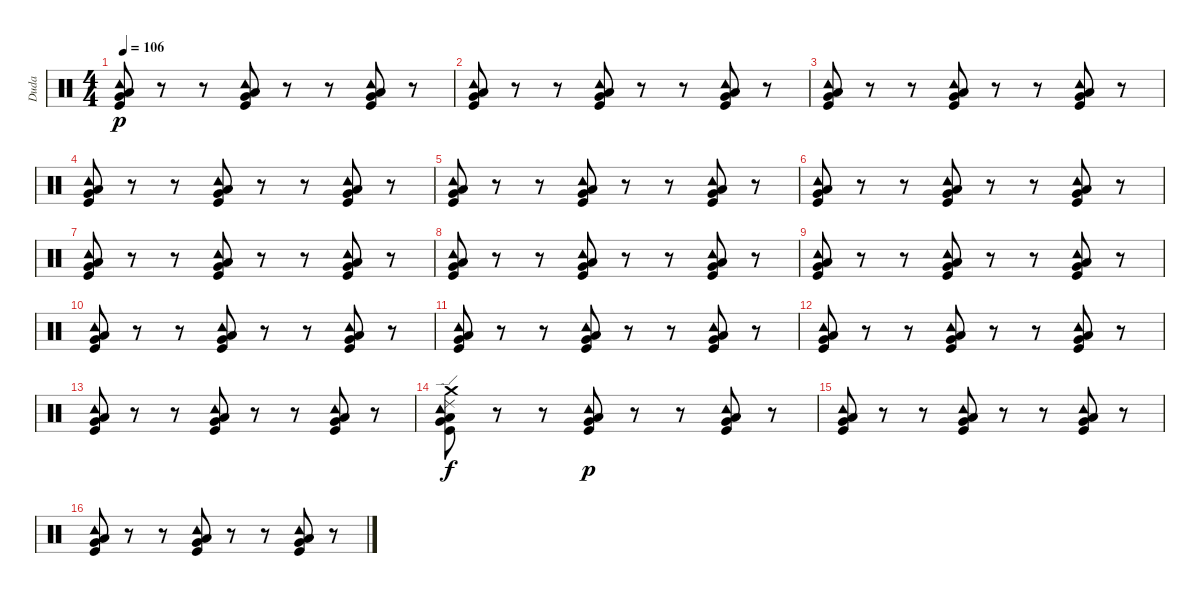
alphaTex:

\track ("Duda" "Duda") {instrument percussion}
\staff {score}
\articulation defaults
\ts (4 4)
\tempo 106
\clef neutral
\ks c
("Tambourine (hit)" "Low Floor Tom (hit)" "Very Low Tom (hit)" "Kick (hit)").8{dy p} r.8 r.8 ("Tambourine (hit)" "Low Floor Tom (hit)" "Very Low Tom (hit)" "Kick (hit)").8 r.8 r.8 ("Tambourine (hit)" "Low Floor Tom (hit)" "Very Low Tom (hit)" "Kick (hit)").8 r.8 |
("Tambourine (hit)" "Low Floor Tom (hit)" "Very Low Tom (hit)" "Kick (hit)").8 r.8 r.8 ("Tambourine (hit)" "Low Floor Tom (hit)" "Very Low Tom (hit)" "Kick (hit)").8 r.8 r.8 ("Tambourine (hit)" "Low Floor Tom (hit)" "Very Low Tom (hit)" "Kick (hit)").8 r.8 |
("Tambourine (hit)" "Low Floor Tom (hit)" "Very Low Tom (hit)" "Kick (hit)").8 r.8 r.8 ("Tambourine (hit)" "Low Floor Tom (hit)" "Very Low Tom (hit)" "Kick (hit)").8 r.8 r.8 ("Tambourine (hit)" "Low Floor Tom (hit)" "Very Low Tom (hit)" "Kick (hit)").8 r.8 |
("Tambourine (hit)" "Low Floor Tom (hit)" "Very Low Tom (hit)" "Kick (hit)").8 r.8 r.8 ("Tambourine (hit)" "Low Floor Tom (hit)" "Very Low Tom (hit)" "Kick (hit)").8 r.8 r.8 ("Tambourine (hit)" "Low Floor Tom (hit)" "Very Low Tom (hit)" "Kick (hit)").8 r.8 |
("Tambourine (hit)" "Low Floor Tom (hit)" "Very Low Tom (hit)" "Kick (hit)").8 r.8 r.8 ("Tambourine (hit)" "Low Floor Tom (hit)" "Very Low Tom (hit)" "Kick (hit)").8 r.8 r.8 ("Tambourine (hit)" "Low Floor Tom (hit)" "Very Low Tom (hit)" "Kick (hit)").8 r.8 |
("Tambourine (hit)" "Low Floor Tom (hit)" "Very Low Tom (hit)" "Kick (hit)").8 r.8 r.8 ("Tambourine (hit)" "Low Floor Tom (hit)" "Very Low Tom (hit)" "Kick (hit)").8 r.8 r.8 ("Tambourine (hit)" "Low Floor Tom (hit)" "Very Low Tom (hit)" "Kick (hit)").8 r.8 |
("Tambourine (hit)" "Low Floor Tom (hit)" "Very Low Tom (hit)" "Kick (hit)").8 r.8 r.8 ("Tambourine (hit)" "Low Floor Tom (hit)" "Very Low Tom (hit)" "Kick (hit)").8 r.8 r.8 ("Tambourine (hit)" "Low Floor Tom (hit)" "Very Low Tom (hit)" "Kick (hit)").8 r.8 |
("Tambourine (hit)" "Low Floor Tom (hit)" "Very Low Tom (hit)" "Kick (hit)").8 r.8 r.8 ("Tambourine (hit)" "Low Floor Tom (hit)" "Very Low Tom (hit)" "Kick (hit)").8 r.8 r.8 ("Tambourine (hit)" "Low Floor Tom (hit)" "Very Low Tom (hit)" "Kick (hit)").8 r.8 |
("Tambourine (hit)" "Low Floor Tom (hit)" "Very Low Tom (hit)" "Kick (hit)").8 r.8 r.8 ("Tambourine (hit)" "Low Floor Tom (hit)" "Very Low Tom (hit)" "Kick (hit)").8 r.8 r.8 ("Tambourine (hit)" "Low Floor Tom (hit)" "Very Low Tom (hit)" "Kick (hit)").8 r.8 |
("Tambourine (hit)" "Low Floor Tom (hit)" "Very Low Tom (hit)" "Kick (hit)").8 r.8 r.8 ("Tambourine (hit)" "Low Floor Tom (hit)" "Very Low Tom (hit)" "Kick (hit)").8 r.8 r.8 ("Tambourine (hit)" "Low Floor Tom (hit)" "Very Low Tom (hit)" "Kick (hit)").8 r.8 |
("Tambourine (hit)" "Low Floor Tom (hit)" "Very Low Tom (hit)" "Kick (hit)").8 r.8 r.8 ("Tambourine (hit)" "Low Floor Tom (hit)" "Very Low Tom (hit)" "Kick (hit)").8 r.8 r.8 ("Tambourine (hit)" "Low Floor Tom (hit)" "Very Low Tom (hit)" "Kick (hit)").8 r.8 |
("Tambourine (hit)" "Low Floor Tom (hit)" "Very Low Tom (hit)" "Kick (hit)").8 r.8 r.8 ("Tambourine (hit)" "Low Floor Tom (hit)" "Very Low Tom (hit)" "Kick (hit)").8 r.8 r.8 ("Tambourine (hit)" "Low Floor Tom (hit)" "Very Low Tom (hit)" "Kick (hit)").8 r.8 |
("Tambourine (hit)" "Low Floor Tom (hit)" "Very Low Tom (hit)" "Kick (hit)").8 r.8 r.8 ("Tambourine (hit)" "Low Floor Tom (hit)" "Very Low Tom (hit)" "Kick (hit)").8 r.8 r.8 ("Tambourine (hit)" "Low Floor Tom (hit)" "Very Low Tom (hit)" "Kick (hit)").8 r.8 |
("Crash medium (hit)" "Low Floor Tom (hit)" "Ride (edge) 2" "Very Low Tom (hit)" "Tambourine (hit)" "Kick (hit)").8{dy f} r.8 r.8 ("Tambourine (hit)" "Low Floor Tom (hit)" "Very Low Tom (hit)" "Kick (hit)").8{dy p} r.8 r.8 ("Tambourine (hit)" "Low Floor Tom (hit)" "Very Low Tom (hit)" "Kick (hit)").8 r.8 |
("Tambourine (hit)" "Low Floor Tom (hit)" "Very Low Tom (hit)" "Kick (hit)").8 r.8 r.8 ("Tambourine (hit)" "Low Floor Tom (hit)" "Very Low Tom (hit)" "Kick (hit)").8 r.8 r.8 ("Tambourine (hit)" "Low Floor Tom (hit)" "Very Low Tom (hit)" "Kick (hit)").8 r.8 |
("Tambourine (hit)" "Low Floor Tom (hit)" "Very Low Tom (hit)" "Kick (hit)").8 r.8 r.8 ("Tambourine (hit)" "Low Floor Tom (hit)" "Very Low Tom (hit)" "Kick (hit)").8 r.8 r.8 ("Tambourine (hit)" "Low Floor Tom (hit)" "Very Low Tom (hit)" "Kick (hit)").8 r.8
